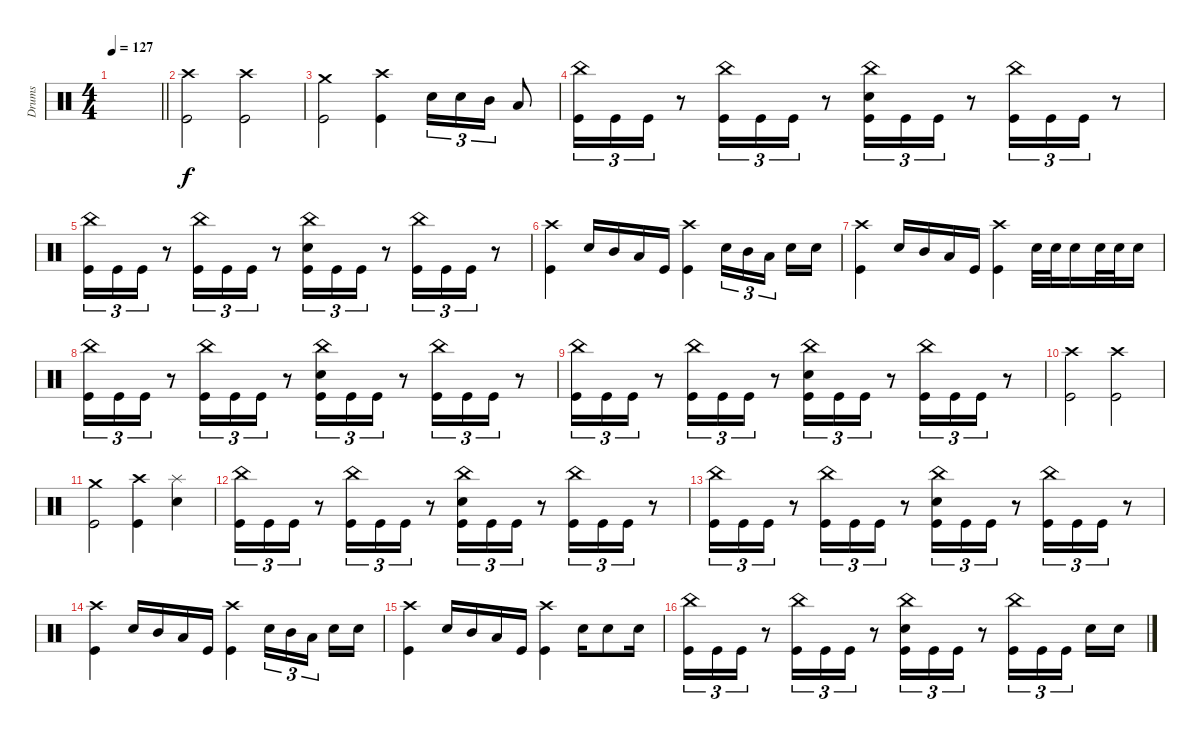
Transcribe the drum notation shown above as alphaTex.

\track ("Drums" "Drums") {instrument percussion}
\staff
\articulation defaults
\ts (4 4)
\tempo 127
\clef neutral
\barLineRight lightlight
\ks c
|
\section ("" "")
("Crash high (hit)" "Kick (hit)").2 ("Crash high (hit)" "Kick (hit)").2 |
("Crash medium (hit)" "Kick (hit)").2 ("Crash high (hit)" "Kick (hit)").4 "Electric Snare (hit)".16{tu (3 2)} "Electric Snare (hit)".16{tu (3 2)} "Mid Tom (hit)".16{tu (3 2)} "Low Tom (hit)".8 |
("China (hit)" "Kick (hit)").16{tu (3 2)} "Kick (hit)".16{tu (3 2)} "Kick (hit)".16{tu (3 2)} r.8 ("China (hit)" "Kick (hit)").16{tu (3 2)} "Kick (hit)".16{tu (3 2)} "Kick (hit)".16{tu (3 2)} r.8 ("China (hit)" "Electric Snare (hit)" "Kick (hit)").16{tu (3 2)} "Kick (hit)".16{tu (3 2)} "Kick (hit)".16{tu (3 2)} r.8 ("China (hit)" "Kick (hit)").16{tu (3 2)} "Kick (hit)".16{tu (3 2)} "Kick (hit)".16{tu (3 2)} r.8 |
("China (hit)" "Kick (hit)").16{tu (3 2)} "Kick (hit)".16{tu (3 2)} "Kick (hit)".16{tu (3 2)} r.8 ("China (hit)" "Kick (hit)").16{tu (3 2)} "Kick (hit)".16{tu (3 2)} "Kick (hit)".16{tu (3 2)} r.8 ("China (hit)" "Electric Snare (hit)" "Kick (hit)").16{tu (3 2)} "Kick (hit)".16{tu (3 2)} "Kick (hit)".16{tu (3 2)} r.8 ("China (hit)" "Kick (hit)").16{tu (3 2)} "Kick (hit)".16{tu (3 2)} "Kick (hit)".16{tu (3 2)} r.8 |
("Crash high (hit)" "Kick (hit)").4 "Electric Snare (hit)".16 "Mid Tom (hit)".16 "Low Tom (hit)".16 "Kick (hit)".16 ("Crash high (hit)" "Kick (hit)").4 "Electric Snare (hit)".16{tu (3 2)} "Mid Tom (hit)".16{tu (3 2)} "Low Tom (hit)".16{tu (3 2) beam splitsecondary} "Electric Snare (hit)".16 "Electric Snare (hit)".16 |
("Crash high (hit)" "Kick (hit)").4 "Electric Snare (hit)".16 "Mid Tom (hit)".16 "Low Tom (hit)".16 "Kick (hit)".16 ("Crash high (hit)" "Kick (hit)").4 "Electric Snare (hit)".32 "Electric Snare (hit)".32 "Electric Snare (hit)".16 "Electric Snare (hit)".32 "Electric Snare (hit)".32 "Electric Snare (hit)".16 |
("China (hit)" "Kick (hit)").16{tu (3 2)} "Kick (hit)".16{tu (3 2)} "Kick (hit)".16{tu (3 2)} r.8 ("China (hit)" "Kick (hit)").16{tu (3 2)} "Kick (hit)".16{tu (3 2)} "Kick (hit)".16{tu (3 2)} r.8 ("China (hit)" "Electric Snare (hit)" "Kick (hit)").16{tu (3 2)} "Kick (hit)".16{tu (3 2)} "Kick (hit)".16{tu (3 2)} r.8 ("China (hit)" "Kick (hit)").16{tu (3 2)} "Kick (hit)".16{tu (3 2)} "Kick (hit)".16{tu (3 2)} r.8 |
("China (hit)" "Kick (hit)").16{tu (3 2)} "Kick (hit)".16{tu (3 2)} "Kick (hit)".16{tu (3 2)} r.8 ("China (hit)" "Kick (hit)").16{tu (3 2)} "Kick (hit)".16{tu (3 2)} "Kick (hit)".16{tu (3 2)} r.8 ("China (hit)" "Electric Snare (hit)" "Kick (hit)").16{tu (3 2)} "Kick (hit)".16{tu (3 2)} "Kick (hit)".16{tu (3 2)} r.8 ("China (hit)" "Kick (hit)").16{tu (3 2)} "Kick (hit)".16{tu (3 2)} "Kick (hit)".16{tu (3 2)} r.8 |
("Crash high (hit)" "Kick (hit)").2 ("Crash high (hit)" "Kick (hit)").2 |
("Crash medium (hit)" "Kick (hit)").2 ("Crash high (hit)" "Kick (hit)").4 ("Splash (hit)" "Electric Snare (hit)").4 |
("China (hit)" "Kick (hit)").16{tu (3 2)} "Kick (hit)".16{tu (3 2)} "Kick (hit)".16{tu (3 2)} r.8 ("China (hit)" "Kick (hit)").16{tu (3 2)} "Kick (hit)".16{tu (3 2)} "Kick (hit)".16{tu (3 2)} r.8 ("China (hit)" "Electric Snare (hit)" "Kick (hit)").16{tu (3 2)} "Kick (hit)".16{tu (3 2)} "Kick (hit)".16{tu (3 2)} r.8 ("China (hit)" "Kick (hit)").16{tu (3 2)} "Kick (hit)".16{tu (3 2)} "Kick (hit)".16{tu (3 2)} r.8 |
("China (hit)" "Kick (hit)").16{tu (3 2)} "Kick (hit)".16{tu (3 2)} "Kick (hit)".16{tu (3 2)} r.8 ("China (hit)" "Kick (hit)").16{tu (3 2)} "Kick (hit)".16{tu (3 2)} "Kick (hit)".16{tu (3 2)} r.8 ("China (hit)" "Electric Snare (hit)" "Kick (hit)").16{tu (3 2)} "Kick (hit)".16{tu (3 2)} "Kick (hit)".16{tu (3 2)} r.8 ("China (hit)" "Kick (hit)").16{tu (3 2)} "Kick (hit)".16{tu (3 2)} "Kick (hit)".16{tu (3 2)} r.8 |
("Crash high (hit)" "Kick (hit)").4 "Electric Snare (hit)".16 "Mid Tom (hit)".16 "Low Tom (hit)".16 "Kick (hit)".16 ("Crash high (hit)" "Kick (hit)").4 "Electric Snare (hit)".16{tu (3 2)} "Mid Tom (hit)".16{tu (3 2)} "Low Tom (hit)".16{tu (3 2) beam splitsecondary} "Electric Snare (hit)".16 "Electric Snare (hit)".16 |
("Crash high (hit)" "Kick (hit)").4 "Electric Snare (hit)".16 "Mid Tom (hit)".16 "Low Tom (hit)".16 "Kick (hit)".16 ("Crash high (hit)" "Kick (hit)").4 "Electric Snare (hit)".16 "Electric Snare (hit)".8 "Electric Snare (hit)".16 |
("China (hit)" "Kick (hit)").16{tu (3 2)} "Kick (hit)".16{tu (3 2)} "Kick (hit)".16{tu (3 2)} r.8 ("China (hit)" "Kick (hit)").16{tu (3 2)} "Kick (hit)".16{tu (3 2)} "Kick (hit)".16{tu (3 2)} r.8 ("China (hit)" "Electric Snare (hit)" "Kick (hit)").16{tu (3 2)} "Kick (hit)".16{tu (3 2)} "Kick (hit)".16{tu (3 2)} r.8 ("China (hit)" "Kick (hit)").16{tu (3 2)} "Kick (hit)".16{tu (3 2)} "Kick (hit)".16{tu (3 2) beam splitsecondary} "Electric Snare (hit)".16 "Electric Snare (hit)".16
